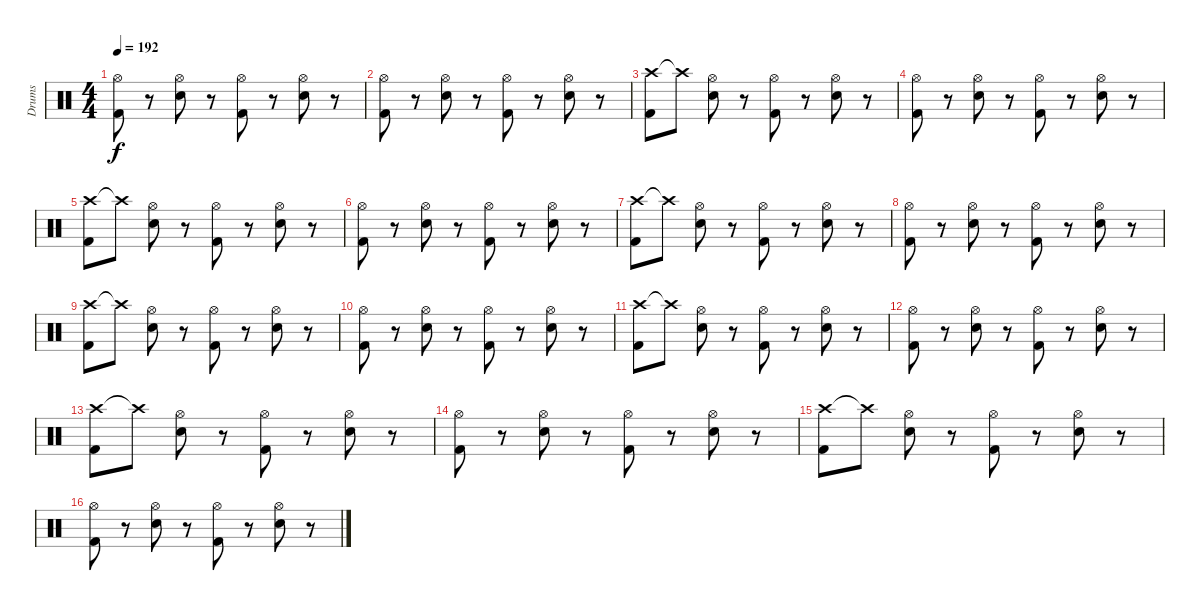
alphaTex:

\track ("Drums" "Drums") {instrument percussion}
\staff {score}
\articulation defaults
\ts (4 4)
\tempo 192
\clef neutral
\ks c
("Hi-Hat (open)" "Kick (hit) 2").8{dy f} r.8 ("Hi-Hat (open)" "Snare (hit) 2").8 r.8 ("Hi-Hat (open)" "Kick (hit) 2").8 r.8 ("Hi-Hat (open)" "Snare (hit) 2").8 r.8 |
("Hi-Hat (open)" "Kick (hit) 2").8 r.8 ("Hi-Hat (open)" "Snare (hit) 2").8 r.8 ("Hi-Hat (open)" "Kick (hit) 2").8 r.8 ("Hi-Hat (open)" "Snare (hit) 2").8 r.8 |
("Crash high (hit)" "Kick (hit) 2").8 "Crash high (hit)"{t}.8 ("Hi-Hat (open)" "Snare (hit) 2").8 r.8 ("Hi-Hat (open)" "Kick (hit) 2").8 r.8 ("Hi-Hat (open)" "Snare (hit) 2").8 r.8 |
("Hi-Hat (open)" "Kick (hit) 2").8 r.8 ("Hi-Hat (open)" "Snare (hit) 2").8 r.8 ("Hi-Hat (open)" "Kick (hit) 2").8 r.8 ("Hi-Hat (open)" "Snare (hit) 2").8 r.8 |
("Crash high (hit)" "Kick (hit) 2").8 "Crash high (hit)"{t}.8 ("Hi-Hat (open)" "Snare (hit) 2").8 r.8 ("Hi-Hat (open)" "Kick (hit) 2").8 r.8 ("Hi-Hat (open)" "Snare (hit) 2").8 r.8 |
("Hi-Hat (open)" "Kick (hit) 2").8 r.8 ("Hi-Hat (open)" "Snare (hit) 2").8 r.8 ("Hi-Hat (open)" "Kick (hit) 2").8 r.8 ("Hi-Hat (open)" "Snare (hit) 2").8 r.8 |
("Crash high (hit)" "Kick (hit) 2").8 "Crash high (hit)"{t}.8 ("Hi-Hat (open)" "Snare (hit) 2").8 r.8 ("Hi-Hat (open)" "Kick (hit) 2").8 r.8 ("Hi-Hat (open)" "Snare (hit) 2").8 r.8 |
("Hi-Hat (open)" "Kick (hit) 2").8 r.8 ("Hi-Hat (open)" "Snare (hit) 2").8 r.8 ("Hi-Hat (open)" "Kick (hit) 2").8 r.8 ("Hi-Hat (open)" "Snare (hit) 2").8 r.8 |
("Crash high (hit)" "Kick (hit) 2").8 "Crash high (hit)"{t}.8 ("Hi-Hat (open)" "Snare (hit) 2").8 r.8 ("Hi-Hat (open)" "Kick (hit) 2").8 r.8 ("Hi-Hat (open)" "Snare (hit) 2").8 r.8 |
("Hi-Hat (open)" "Kick (hit) 2").8 r.8 ("Hi-Hat (open)" "Snare (hit) 2").8 r.8 ("Hi-Hat (open)" "Kick (hit) 2").8 r.8 ("Hi-Hat (open)" "Snare (hit) 2").8 r.8 |
("Crash high (hit)" "Kick (hit) 2").8 "Crash high (hit)"{t}.8 ("Hi-Hat (open)" "Snare (hit) 2").8 r.8 ("Hi-Hat (open)" "Kick (hit) 2").8 r.8 ("Hi-Hat (open)" "Snare (hit) 2").8 r.8 |
("Hi-Hat (open)" "Kick (hit) 2").8 r.8 ("Hi-Hat (open)" "Snare (hit) 2").8 r.8 ("Hi-Hat (open)" "Kick (hit) 2").8 r.8 ("Hi-Hat (open)" "Snare (hit) 2").8 r.8 |
("Crash high (hit)" "Kick (hit) 2").8 "Crash high (hit)"{t}.8 ("Hi-Hat (open)" "Snare (hit) 2").8 r.8 ("Hi-Hat (open)" "Kick (hit) 2").8 r.8 ("Hi-Hat (open)" "Snare (hit) 2").8 r.8 |
("Hi-Hat (open)" "Kick (hit) 2").8 r.8 ("Hi-Hat (open)" "Snare (hit) 2").8 r.8 ("Hi-Hat (open)" "Kick (hit) 2").8 r.8 ("Hi-Hat (open)" "Snare (hit) 2").8 r.8 |
("Crash high (hit)" "Kick (hit) 2").8 "Crash high (hit)"{t}.8 ("Hi-Hat (open)" "Snare (hit) 2").8 r.8 ("Hi-Hat (open)" "Kick (hit) 2").8 r.8 ("Hi-Hat (open)" "Snare (hit) 2").8 r.8 |
("Hi-Hat (open)" "Kick (hit) 2").8 r.8 ("Hi-Hat (open)" "Snare (hit) 2").8 r.8 ("Hi-Hat (open)" "Kick (hit) 2").8 r.8 ("Hi-Hat (open)" "Snare (hit) 2").8 r.8
